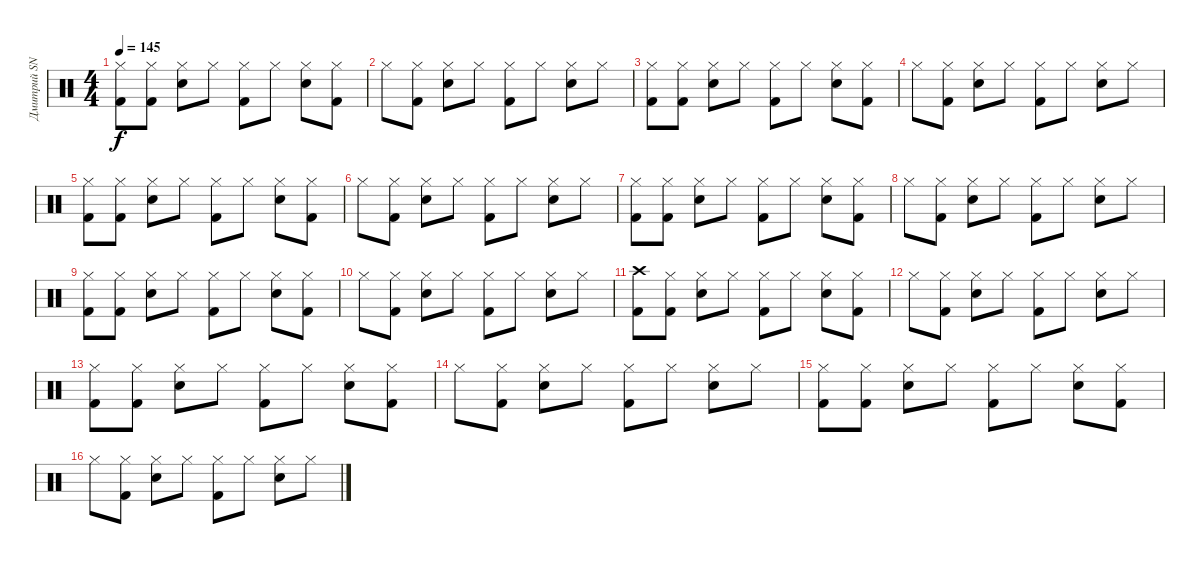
\track ("Дмитрий SNAKE Хакимов" "Дмитрий SN") {instrument percussion}
\staff {score}
\articulation defaults
\ts (4 4)
\tempo 145
\clef neutral
\ks c
("Hi-Hat (closed)" "Kick (hit) 2").8{dy f} ("Hi-Hat (closed)" "Kick (hit) 2").8 ("Hi-Hat (closed)" "Snare (hit) 2").8 "Hi-Hat (closed)".8 ("Hi-Hat (closed)" "Kick (hit) 2").8 "Hi-Hat (closed)".8 ("Hi-Hat (closed)" "Snare (hit) 2").8 ("Hi-Hat (closed)" "Kick (hit) 2").8 |
"Hi-Hat (closed)".8 ("Hi-Hat (closed)" "Kick (hit) 2").8 ("Hi-Hat (closed)" "Snare (hit) 2").8 "Hi-Hat (closed)".8 ("Hi-Hat (closed)" "Kick (hit) 2").8 "Hi-Hat (closed)".8 ("Hi-Hat (closed)" "Snare (hit) 2").8 "Hi-Hat (closed)".8 |
("Hi-Hat (closed)" "Kick (hit) 2").8 ("Hi-Hat (closed)" "Kick (hit) 2").8 ("Hi-Hat (closed)" "Snare (hit) 2").8 "Hi-Hat (closed)".8 ("Hi-Hat (closed)" "Kick (hit) 2").8 "Hi-Hat (closed)".8 ("Hi-Hat (closed)" "Snare (hit) 2").8 ("Hi-Hat (closed)" "Kick (hit) 2").8 |
"Hi-Hat (closed)".8 ("Hi-Hat (closed)" "Kick (hit) 2").8 ("Hi-Hat (closed)" "Snare (hit) 2").8 "Hi-Hat (closed)".8 ("Hi-Hat (closed)" "Kick (hit) 2").8 "Hi-Hat (closed)".8 ("Hi-Hat (closed)" "Snare (hit) 2").8 "Hi-Hat (closed)".8 |
("Hi-Hat (closed)" "Kick (hit) 2").8 ("Hi-Hat (closed)" "Kick (hit) 2").8 ("Hi-Hat (closed)" "Snare (hit) 2").8 "Hi-Hat (closed)".8 ("Hi-Hat (closed)" "Kick (hit) 2").8 "Hi-Hat (closed)".8 ("Hi-Hat (closed)" "Snare (hit) 2").8 ("Hi-Hat (closed)" "Kick (hit) 2").8 |
"Hi-Hat (closed)".8 ("Hi-Hat (closed)" "Kick (hit) 2").8 ("Hi-Hat (closed)" "Snare (hit) 2").8 "Hi-Hat (closed)".8 ("Hi-Hat (closed)" "Kick (hit) 2").8 "Hi-Hat (closed)".8 ("Hi-Hat (closed)" "Snare (hit) 2").8 "Hi-Hat (closed)".8 |
("Hi-Hat (closed)" "Kick (hit) 2").8 ("Hi-Hat (closed)" "Kick (hit) 2").8 ("Hi-Hat (closed)" "Snare (hit) 2").8 "Hi-Hat (closed)".8 ("Hi-Hat (closed)" "Kick (hit) 2").8 "Hi-Hat (closed)".8 ("Hi-Hat (closed)" "Snare (hit) 2").8 ("Hi-Hat (closed)" "Kick (hit) 2").8 |
"Hi-Hat (closed)".8 ("Hi-Hat (closed)" "Kick (hit) 2").8 ("Hi-Hat (closed)" "Snare (hit) 2").8 "Hi-Hat (closed)".8 ("Hi-Hat (closed)" "Kick (hit) 2").8 "Hi-Hat (closed)".8 ("Hi-Hat (closed)" "Snare (hit) 2").8 "Hi-Hat (closed)".8 |
("Hi-Hat (closed)" "Kick (hit) 2").8 ("Hi-Hat (closed)" "Kick (hit) 2").8 ("Hi-Hat (closed)" "Snare (hit) 2").8 "Hi-Hat (closed)".8 ("Hi-Hat (closed)" "Kick (hit) 2").8 "Hi-Hat (closed)".8 ("Hi-Hat (closed)" "Snare (hit) 2").8 ("Hi-Hat (closed)" "Kick (hit) 2").8 |
"Hi-Hat (closed)".8 ("Hi-Hat (closed)" "Kick (hit) 2").8 ("Hi-Hat (closed)" "Snare (hit) 2").8 "Hi-Hat (closed)".8 ("Hi-Hat (closed)" "Kick (hit) 2").8 "Hi-Hat (closed)".8 ("Hi-Hat (closed)" "Snare (hit) 2").8 "Hi-Hat (closed)".8 |
("Crash high (hit)" "Kick (hit) 2").8 ("Hi-Hat (closed)" "Kick (hit) 2").8 ("Hi-Hat (closed)" "Snare (hit) 2").8 "Hi-Hat (closed)".8 ("Hi-Hat (closed)" "Kick (hit) 2").8 "Hi-Hat (closed)".8 ("Hi-Hat (closed)" "Snare (hit) 2").8 ("Hi-Hat (closed)" "Kick (hit) 2").8 |
"Hi-Hat (closed)".8 ("Hi-Hat (closed)" "Kick (hit) 2").8 ("Hi-Hat (closed)" "Snare (hit) 2").8 "Hi-Hat (closed)".8 ("Hi-Hat (closed)" "Kick (hit) 2").8 "Hi-Hat (closed)".8 ("Hi-Hat (closed)" "Snare (hit) 2").8 "Hi-Hat (closed)".8 |
("Hi-Hat (closed)" "Kick (hit) 2").8 ("Hi-Hat (closed)" "Kick (hit) 2").8 ("Hi-Hat (closed)" "Snare (hit) 2").8 "Hi-Hat (closed)".8 ("Hi-Hat (closed)" "Kick (hit) 2").8 "Hi-Hat (closed)".8 ("Hi-Hat (closed)" "Snare (hit) 2").8 ("Hi-Hat (closed)" "Kick (hit) 2").8 |
"Hi-Hat (closed)".8 ("Hi-Hat (closed)" "Kick (hit) 2").8 ("Hi-Hat (closed)" "Snare (hit) 2").8 "Hi-Hat (closed)".8 ("Hi-Hat (closed)" "Kick (hit) 2").8 "Hi-Hat (closed)".8 ("Hi-Hat (closed)" "Snare (hit) 2").8 "Hi-Hat (closed)".8 |
("Hi-Hat (closed)" "Kick (hit) 2").8 ("Hi-Hat (closed)" "Kick (hit) 2").8 ("Hi-Hat (closed)" "Snare (hit) 2").8 "Hi-Hat (closed)".8 ("Hi-Hat (closed)" "Kick (hit) 2").8 "Hi-Hat (closed)".8 ("Hi-Hat (closed)" "Snare (hit) 2").8 ("Hi-Hat (closed)" "Kick (hit) 2").8 |
"Hi-Hat (closed)".8 ("Hi-Hat (closed)" "Kick (hit) 2").8 ("Hi-Hat (closed)" "Snare (hit) 2").8 "Hi-Hat (closed)".8 ("Hi-Hat (closed)" "Kick (hit) 2").8 "Hi-Hat (closed)".8 ("Hi-Hat (closed)" "Snare (hit) 2").8 "Hi-Hat (closed)".8
